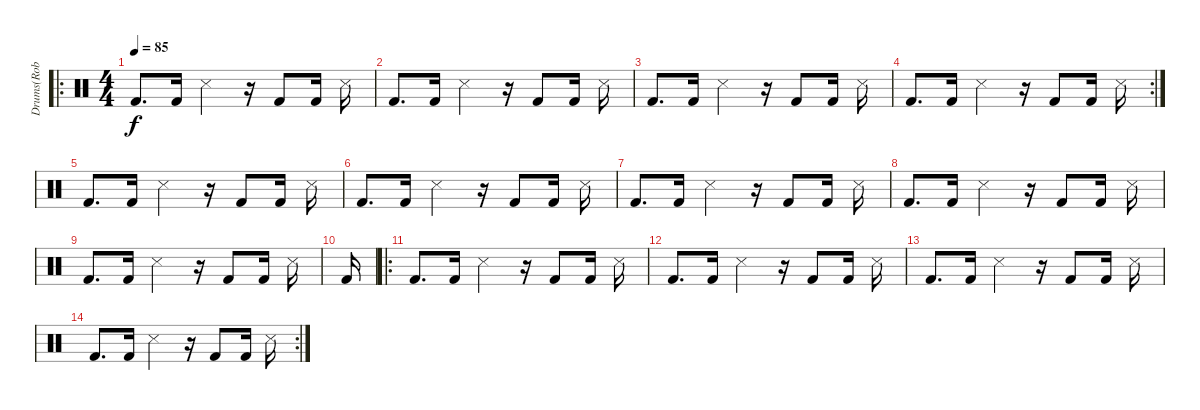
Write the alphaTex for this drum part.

\track ("Drums(Rob Bourdon)(Right hand)" "Drums(Rob ") {instrument percussion}
\staff {score}
\articulation defaults
\ro
\ts (4 4)
\tempo 85
\clef neutral
\ks c "Kick (hit) 2".8{d dy f volume 16} "Kick (hit) 2".16 "Snare (side stick) 3".4
r.16 "Kick (hit) 2".8 "Kick (hit) 2".16 "Snare (side stick) 3".16 |
"Kick (hit) 2".8{d} "Kick (hit) 2".16 "Snare (side stick) 3".4 r.16 "Kick (hit) 2".8 "Kick (hit) 2".16 "Snare (side stick) 3".16 |
"Kick (hit) 2".8{d} "Kick (hit) 2".16 "Snare (side stick) 3".4 r.16 "Kick (hit) 2".8 "Kick (hit) 2".16 "Snare (side stick) 3".16 |
\rc 2 "Kick (hit) 2".8{d} "Kick (hit) 2".16 "Snare (side stick) 3".4
r.16 "Kick (hit) 2".8 "Kick (hit) 2".16 "Snare (side stick) 3".16 |
"Kick (hit) 2".8{d volume 16} "Kick (hit) 2".16 "Snare (side stick) 3".4 r.16 "Kick (hit) 2".8 "Kick (hit) 2".16 "Snare (side stick) 3".16 |
"Kick (hit) 2".8{d} "Kick (hit) 2".16 "Snare (side stick) 3".4 r.16 "Kick (hit) 2".8 "Kick (hit) 2".16 "Snare (side stick) 3".16 |
"Kick (hit) 2".8{d} "Kick (hit) 2".16 "Snare (side stick) 3".4 r.16 "Kick (hit) 2".8 "Kick (hit) 2".16 "Snare (side stick) 3".16 |
"Kick (hit) 2".8{d} "Kick (hit) 2".16 "Snare (side stick) 3".4 r.16 "Kick (hit) 2".8 "Kick (hit) 2".16 "Snare (side stick) 3".16 |
"Kick (hit) 2".8{d} "Kick (hit) 2".16 "Snare (side stick) 3".4 r.16 "Kick (hit) 2".8 "Kick (hit) 2".16 "Snare (side stick) 3".16 |
"Kick (hit) 2".16 |
\ro "Kick (hit) 2".8{d volume 16} "Kick (hit) 2".16 "Snare (side stick) 3".4
r.16 "Kick (hit) 2".8 "Kick (hit) 2".16 "Snare (side stick) 3".16 |
"Kick (hit) 2".8{d} "Kick (hit) 2".16 "Snare (side stick) 3".4 r.16 "Kick (hit) 2".8 "Kick (hit) 2".16 "Snare (side stick) 3".16 |
"Kick (hit) 2".8{d} "Kick (hit) 2".16 "Snare (side stick) 3".4 r.16 "Kick (hit) 2".8 "Kick (hit) 2".16 "Snare (side stick) 3".16 |
\rc 2 "Kick (hit) 2".8{d} "Kick (hit) 2".16 "Snare (side stick) 3".4
r.16 "Kick (hit) 2".8 "Kick (hit) 2".16 "Snare (side stick) 3".16
